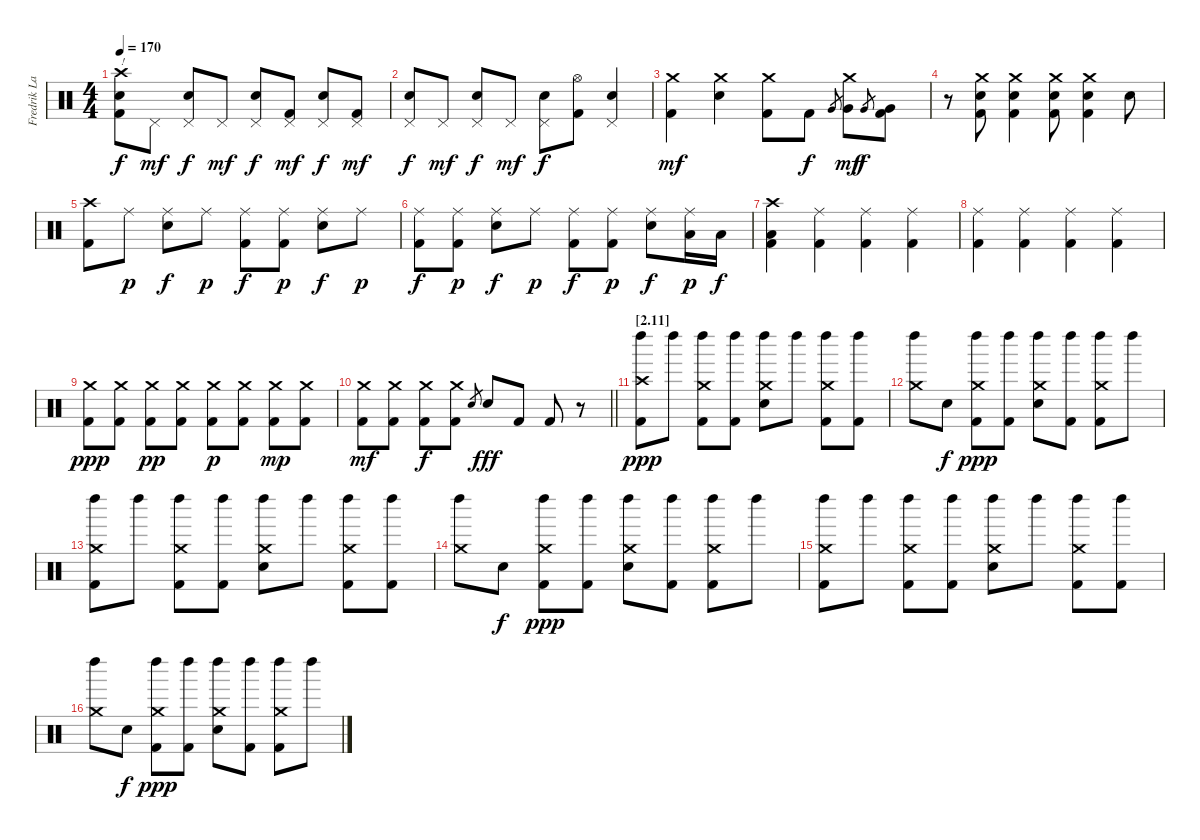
\track ("Fredrik Larzon - Percussion" "Fredrik La") {instrument percussion}
\staff {score}
\articulation defaults
\ts (4 4)
\tempo 170
\clef neutral
\ks c
("Crash high (hit)" "Electric Snare (hit)" "Kick (hit) 2").8{txt "!" dy f} "Pedal Hi-Hat (hit)".8{dy mf} ("Pedal Hi-Hat (hit)" "Electric Snare (hit)").8{dy f} "Pedal Hi-Hat (hit)".8{dy mf} ("Pedal Hi-Hat (hit)" "Electric Snare (hit)").8{dy f} ("Pedal Hi-Hat (hit)" "Kick (hit) 2").8{dy mf} ("Pedal Hi-Hat (hit)" "Electric Snare (hit)").8{dy f} ("Pedal Hi-Hat (hit)" "Kick (hit) 2").8{dy mf} |
("Pedal Hi-Hat (hit)" "Electric Snare (hit)").8{dy f} "Pedal Hi-Hat (hit)".8{dy mf} ("Pedal Hi-Hat (hit)" "Electric Snare (hit)").8{dy f} "Pedal Hi-Hat (hit)".8{dy mf} ("Pedal Hi-Hat (hit)" "Electric Snare (hit)").8{dy f} ("Hi-Hat (open)" "Kick (hit) 2").8 ("Pedal Hi-Hat (hit)" "Electric Snare (hit)").4 |
("Crash medium (hit)" "Kick (hit) 2").4{dy mf} ("Crash medium (hit)" "Electric Snare (hit)").4 ("Crash medium (hit)" "Kick (hit) 2").8 "Kick (hit) 2".8{dy f} "Very Low Tom (hit)".8{gr} ("Crash medium (hit)" "Very Low Tom (hit)").8{dy mf} "Very Low Tom (hit)".8{gr dy f} ("Very Low Tom (hit)" "Kick (hit) 2").8 |
r.8 ("Crash medium (hit)" "Electric Snare (hit)" "Kick (hit) 2").8 ("Crash medium (hit)" "Electric Snare (hit)" "Kick (hit) 2").4 ("Crash medium (hit)" "Electric Snare (hit)" "Kick (hit) 2").8 ("Crash medium (hit)" "Electric Snare (hit)" "Kick (hit) 2").4 "Electric Snare (hit)".8 |
("Crash high (hit)" "Kick (hit) 2").8 "Ride (middle)".8{dy p} ("Ride (middle)" "Electric Snare (hit)").8{dy f} "Ride (middle)".8{dy p} ("Ride (middle)" "Kick (hit) 2").8{dy f} ("Ride (middle)" "Kick (hit) 2").8{dy p} ("Ride (middle)" "Electric Snare (hit)").8{dy f} "Ride (middle)".8{dy p} |
("Ride (middle)" "Kick (hit) 2").8{dy f} ("Ride (middle)" "Kick (hit) 2").8{dy p} ("Ride (middle)" "Electric Snare (hit)").8{dy f} "Ride (middle)".8{dy p} ("Ride (middle)" "Kick (hit) 2").8{dy f} ("Ride (middle)" "Kick (hit) 2").8{dy p} ("Ride (middle)" "Electric Snare (hit)").8{dy f} ("Ride (middle)" "Low Floor Tom (hit)").16{dy p} "Low Floor Tom (hit)".16{dy f} |
("Crash high (hit)" "Low Floor Tom (hit)" "Kick (hit) 2").4 ("Ride (middle)" "Kick (hit) 2").4 ("Ride (middle)" "Kick (hit) 2").4 ("Ride (middle)" "Kick (hit) 2").4 |
("Ride (middle)" "Kick (hit) 2").4 ("Ride (middle)" "Kick (hit) 2").4 ("Ride (middle)" "Kick (hit) 2").4 ("Ride (middle)" "Kick (hit) 2").4 |
("Crash medium (hit)" "Kick (hit) 2").8{dy ppp} ("Crash medium (hit)" "Kick (hit) 2").8 ("Crash medium (hit)" "Kick (hit) 2").8{dy pp} ("Crash medium (hit)" "Kick (hit) 2").8 ("Crash medium (hit)" "Kick (hit) 2").8{dy p} ("Crash medium (hit)" "Kick (hit) 2").8 ("Crash medium (hit)" "Kick (hit) 2").8{dy mp} ("Crash medium (hit)" "Kick (hit) 2").8 |
\barLineRight lightlight
("Crash medium (hit)" "Kick (hit) 2").8{dy mf} ("Crash medium (hit)" "Kick (hit) 2").8 ("Crash medium (hit)" "Kick (hit) 2").8{dy f} ("Crash medium (hit)" "Kick (hit) 2").8 "Electric Snare (hit)".8{gr} "Electric Snare (hit)".8{dy fff} "Kick (hit) 2".8 "Kick (hit) 2".8 r.8 |
\section ("" "[2.11]")
("Crash high (hit)" "Left Maraca (hit)" "Kick (hit) 2").8{dy ppp} "Left Maraca (hit)".8 ("Crash medium (hit)" "Left Maraca (hit)" "Kick (hit) 2").8 ("Left Maraca (hit)" "Kick (hit) 2").8 ("Crash medium (hit)" "Left Maraca (hit)" "Electric Snare (hit)").8 "Left Maraca (hit)".8 ("Crash medium (hit)" "Left Maraca (hit)" "Kick (hit) 2").8 ("Left Maraca (hit)" "Kick (hit) 2").8 |
("Crash medium (hit)" "Left Maraca (hit)").8 "Electric Snare (hit)".8{dy f} ("Crash medium (hit)" "Left Maraca (hit)" "Kick (hit) 2").8{dy ppp} ("Left Maraca (hit)" "Kick (hit) 2").8 ("Crash medium (hit)" "Left Maraca (hit)" "Electric Snare (hit)").8 ("Left Maraca (hit)" "Kick (hit) 2").8 ("Crash medium (hit)" "Left Maraca (hit)" "Kick (hit) 2").8 "Left Maraca (hit)".8 |
("Crash medium (hit)" "Left Maraca (hit)" "Kick (hit) 2").8 "Left Maraca (hit)".8 ("Crash medium (hit)" "Left Maraca (hit)" "Kick (hit) 2").8 ("Left Maraca (hit)" "Kick (hit) 2").8 ("Crash medium (hit)" "Left Maraca (hit)" "Electric Snare (hit)").8 "Left Maraca (hit)".8 ("Crash medium (hit)" "Left Maraca (hit)" "Kick (hit) 2").8 ("Left Maraca (hit)" "Kick (hit) 2").8 |
("Crash medium (hit)" "Left Maraca (hit)").8 "Electric Snare (hit)".8{dy f} ("Crash medium (hit)" "Left Maraca (hit)" "Kick (hit) 2").8{dy ppp} ("Left Maraca (hit)" "Kick (hit) 2").8 ("Crash medium (hit)" "Left Maraca (hit)" "Electric Snare (hit)").8 ("Left Maraca (hit)" "Kick (hit) 2").8 ("Crash medium (hit)" "Left Maraca (hit)" "Kick (hit) 2").8 "Left Maraca (hit)".8 |
("Crash medium (hit)" "Left Maraca (hit)" "Kick (hit) 2").8 "Left Maraca (hit)".8 ("Crash medium (hit)" "Left Maraca (hit)" "Kick (hit) 2").8 ("Left Maraca (hit)" "Kick (hit) 2").8 ("Crash medium (hit)" "Left Maraca (hit)" "Electric Snare (hit)").8 "Left Maraca (hit)".8 ("Crash medium (hit)" "Left Maraca (hit)" "Kick (hit) 2").8 ("Left Maraca (hit)" "Kick (hit) 2").8 |
("Crash medium (hit)" "Left Maraca (hit)").8 "Electric Snare (hit)".8{dy f} ("Crash medium (hit)" "Left Maraca (hit)" "Kick (hit) 2").8{dy ppp} ("Left Maraca (hit)" "Kick (hit) 2").8 ("Crash medium (hit)" "Left Maraca (hit)" "Electric Snare (hit)").8 ("Left Maraca (hit)" "Kick (hit) 2").8 ("Crash medium (hit)" "Left Maraca (hit)" "Kick (hit) 2").8 "Left Maraca (hit)".8
